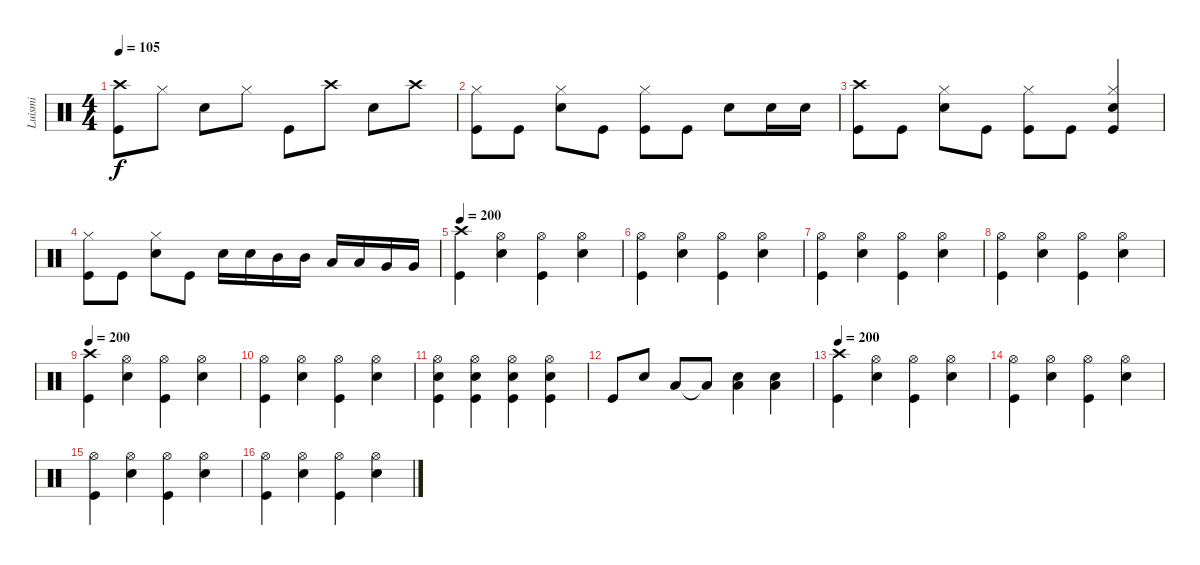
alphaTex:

\track ("Luismi" "Luismi") {instrument percussion}
\staff {score}
\articulation defaults
\ts (4 4)
\tempo 105
\clef neutral
\ks c
("Kick (hit)" "Crash high (hit)").8{dy f} "Hi-Hat (closed)".8 "Snare (hit) 2".8 "Hi-Hat (closed)".8 "Kick (hit)".8 "Crash high (hit)".8 "Snare (hit) 2".8 "Crash high (hit)".8 |
("Kick (hit)" "Hi-Hat (closed)").8 "Kick (hit)".8 ("Snare (hit) 2" "Hi-Hat (closed)").8 "Kick (hit)".8 ("Kick (hit)" "Hi-Hat (closed)").8 "Kick (hit)".8 "Snare (hit) 2".8 "Snare (hit) 2".16 "Snare (hit) 2".16 |
("Kick (hit)" "Crash high (hit)").8 "Kick (hit)".8 ("Snare (hit) 2" "Hi-Hat (closed)").8 "Kick (hit)".8 ("Kick (hit)" "Hi-Hat (closed)").8 "Kick (hit)".8 ("Snare (hit) 2" "Hi-Hat (closed)" "Kick (hit)").4 |
("Kick (hit)" "Hi-Hat (closed)").8 "Kick (hit)".8 ("Snare (hit) 2" "Hi-Hat (closed)").8 "Kick (hit)".8 "Snare (hit) 2".16 "Snare (hit) 2".16 "Mid Tom (hit)".16 "Mid Tom (hit)".16 "Low Tom (hit)".16 "Low Tom (hit)".16 "Very Low Tom (hit)".16 "Very Low Tom (hit)".16 |
\tempo 200
("Kick (hit)" "Crash high (hit)").4 ("Snare (hit) 2" "Hi-Hat (open)").4 ("Kick (hit)" "Hi-Hat (open)").4 ("Snare (hit) 2" "Hi-Hat (open)").4 |
("Kick (hit)" "Hi-Hat (open)").4 ("Hi-Hat (open)" "Snare (hit) 2").4 ("Kick (hit)" "Hi-Hat (open)").4 ("Snare (hit) 2" "Hi-Hat (open)").4 |
("Kick (hit)" "Hi-Hat (open)").4 ("Hi-Hat (open)" "Snare (hit) 2").4 ("Kick (hit)" "Hi-Hat (open)").4 ("Snare (hit) 2" "Hi-Hat (open)").4 |
("Kick (hit)" "Hi-Hat (open)").4 ("Hi-Hat (open)" "Snare (hit) 2").4 ("Kick (hit)" "Hi-Hat (open)").4 ("Snare (hit) 2" "Hi-Hat (open)").4 |
\tempo 200
("Kick (hit)" "Crash high (hit)").4 ("Snare (hit) 2" "Hi-Hat (open)").4 ("Kick (hit)" "Hi-Hat (open)").4 ("Snare (hit) 2" "Hi-Hat (open)").4 |
("Kick (hit)" "Hi-Hat (open)").4 ("Hi-Hat (open)" "Snare (hit) 2").4 ("Kick (hit)" "Hi-Hat (open)").4 ("Snare (hit) 2" "Hi-Hat (open)").4 |
("Hi-Hat (open)" "Snare (hit) 2" "Kick (hit)").4 ("Hi-Hat (open)" "Snare (hit) 2" "Kick (hit)").4 ("Hi-Hat (open)" "Snare (hit) 2" "Kick (hit)").4 ("Hi-Hat (open)" "Snare (hit) 2" "Kick (hit)").4 |
"Kick (hit)".8 "Snare (hit) 2".8 "Low Tom (hit)".8 "Low Tom (hit)"{t}.8 ("Snare (hit) 2" "Low Tom (hit)").4 ("Snare (hit) 2" "Low Tom (hit)").4 |
\tempo 200
("Kick (hit)" "Crash high (hit)").4 ("Snare (hit) 2" "Hi-Hat (open)").4 ("Kick (hit)" "Hi-Hat (open)").4 ("Snare (hit) 2" "Hi-Hat (open)").4 |
("Kick (hit)" "Hi-Hat (open)").4 ("Hi-Hat (open)" "Snare (hit) 2").4 ("Kick (hit)" "Hi-Hat (open)").4 ("Snare (hit) 2" "Hi-Hat (open)").4 |
("Kick (hit)" "Hi-Hat (open)").4 ("Hi-Hat (open)" "Snare (hit) 2").4 ("Kick (hit)" "Hi-Hat (open)").4 ("Snare (hit) 2" "Hi-Hat (open)").4 |
("Kick (hit)" "Hi-Hat (open)").4 ("Hi-Hat (open)" "Snare (hit) 2").4 ("Kick (hit)" "Hi-Hat (open)").4 ("Snare (hit) 2" "Hi-Hat (open)").4
